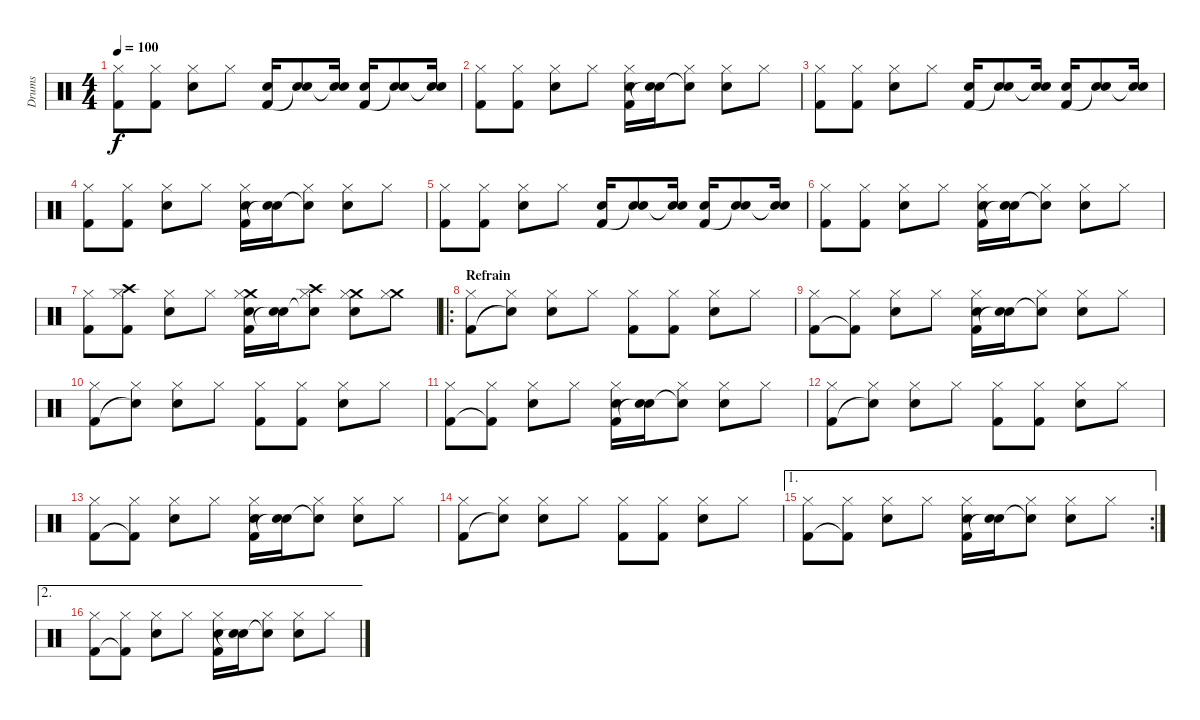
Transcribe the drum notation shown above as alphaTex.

\track ("Drums" "Drums") {instrument percussion}
\staff {score}
\articulation defaults
\ts (4 4)
\tempo 100
\clef neutral
\ks c
("Kick (hit) 2" "Hi-Hat (closed)").8{dy f} ("Kick (hit) 2" "Hi-Hat (closed)").8 ("Snare (hit) 2" "Hi-Hat (closed)").8 "Hi-Hat (closed)".8 ("Kick (hit) 2" "Snare (hit) 2").16 ("Snare (hit)"{t} "Snare (hit) 2").8 ("Snare (hit)"{t} "Snare (hit) 2").16 ("Kick (hit) 2" "Snare (hit) 2").16 ("Snare (hit)"{t} "Snare (hit) 2").8 ("Snare (hit)"{t} "Snare (hit) 2").16 |
("Kick (hit) 2" "Hi-Hat (closed)").8 ("Kick (hit) 2" "Hi-Hat (closed)").8 ("Snare (hit) 2" "Hi-Hat (closed)").8 "Hi-Hat (closed)".8 ("Kick (hit) 2" "Snare (hit) 2" "Hi-Hat (closed)").16 ("Snare (hit)"{t} "Snare (hit) 2").16 ("Snare (hit)"{t} "Hi-Hat (closed)").8 ("Snare (hit) 2" "Hi-Hat (closed)").8 "Hi-Hat (closed)".8 |
("Kick (hit) 2" "Hi-Hat (closed)").8 ("Kick (hit) 2" "Hi-Hat (closed)").8 ("Snare (hit) 2" "Hi-Hat (closed)").8 "Hi-Hat (closed)".8 ("Kick (hit) 2" "Snare (hit) 2").16 ("Snare (hit)"{t} "Snare (hit) 2").8 ("Snare (hit)"{t} "Snare (hit) 2").16 ("Kick (hit) 2" "Snare (hit) 2").16 ("Snare (hit)"{t} "Snare (hit) 2").8 ("Snare (hit)"{t} "Snare (hit) 2").16 |
("Kick (hit) 2" "Hi-Hat (closed)").8 ("Kick (hit) 2" "Hi-Hat (closed)").8 ("Snare (hit) 2" "Hi-Hat (closed)").8 "Hi-Hat (closed)".8 ("Kick (hit) 2" "Snare (hit) 2" "Hi-Hat (closed)").16 ("Snare (hit)"{t} "Snare (hit) 2").16 ("Snare (hit)"{t} "Hi-Hat (closed)").8 ("Snare (hit) 2" "Hi-Hat (closed)").8 "Hi-Hat (closed)".8 |
("Kick (hit) 2" "Hi-Hat (closed)").8 ("Kick (hit) 2" "Hi-Hat (closed)").8 ("Snare (hit) 2" "Hi-Hat (closed)").8 "Hi-Hat (closed)".8 ("Kick (hit) 2" "Snare (hit) 2").16 ("Snare (hit)"{t} "Snare (hit) 2").8 ("Snare (hit)"{t} "Snare (hit) 2").16 ("Kick (hit) 2" "Snare (hit) 2").16 ("Snare (hit)"{t} "Snare (hit) 2").8 ("Snare (hit)"{t} "Snare (hit) 2").16 |
("Kick (hit) 2" "Hi-Hat (closed)").8 ("Kick (hit) 2" "Hi-Hat (closed)").8 ("Snare (hit) 2" "Hi-Hat (closed)").8 "Hi-Hat (closed)".8 ("Kick (hit) 2" "Snare (hit) 2" "Hi-Hat (closed)").16 ("Snare (hit)"{t} "Snare (hit) 2").16 ("Snare (hit)"{t} "Hi-Hat (closed)").8 ("Snare (hit) 2" "Hi-Hat (closed)").8 "Hi-Hat (closed)".8 |
("Kick (hit) 2" "Hi-Hat (closed)").8 ("Kick (hit) 2" "Crash high (hit)" "Hi-Hat (closed)").8 ("Snare (hit) 2" "Hi-Hat (closed)").8 "Hi-Hat (closed)".8 ("Kick (hit) 2" "Crash medium (hit)" "Snare (hit) 2" "Hi-Hat (closed)").16 ("Snare (hit)"{t} "Snare (hit) 2").16 ("Snare (hit)"{t} "Crash high (hit)" "Hi-Hat (closed)").8 ("Crash medium (hit)" "Snare (hit) 2" "Hi-Hat (closed)").8 ("Crash medium (hit)" "Hi-Hat (closed)").8 |
\ro
\section ("" "Refrain")
("Kick (hit) 2" "Hi-Hat (closed)").8 ("Snare (hit)"{t} "Hi-Hat (closed)").8 ("Snare (hit) 2" "Hi-Hat (closed)").8 "Hi-Hat (closed)".8 ("Kick (hit) 2" "Hi-Hat (closed)").8 ("Kick (hit) 2" "Hi-Hat (closed)").8 ("Snare (hit) 2" "Hi-Hat (closed)").8 "Hi-Hat (closed)".8 |
("Kick (hit) 2" "Hi-Hat (closed)").8 ("Kick (hit) 2"{t} "Hi-Hat (closed)").8 ("Snare (hit) 2" "Hi-Hat (closed)").8 "Hi-Hat (closed)".8 ("Kick (hit) 2" "Snare (hit) 2" "Hi-Hat (closed)").16 ("Snare (hit)"{t} "Snare (hit) 2").16 ("Snare (hit)"{t} "Hi-Hat (closed)").8 ("Snare (hit) 2" "Hi-Hat (closed)").8 "Hi-Hat (closed)".8 |
("Kick (hit) 2" "Hi-Hat (closed)").8 ("Snare (hit)"{t} "Hi-Hat (closed)").8 ("Snare (hit) 2" "Hi-Hat (closed)").8 "Hi-Hat (closed)".8 ("Kick (hit) 2" "Hi-Hat (closed)").8 ("Kick (hit) 2" "Hi-Hat (closed)").8 ("Snare (hit) 2" "Hi-Hat (closed)").8 "Hi-Hat (closed)".8 |
("Kick (hit) 2" "Hi-Hat (closed)").8 ("Kick (hit) 2"{t} "Hi-Hat (closed)").8 ("Snare (hit) 2" "Hi-Hat (closed)").8 "Hi-Hat (closed)".8 ("Kick (hit) 2" "Snare (hit) 2" "Hi-Hat (closed)").16 ("Snare (hit)"{t} "Snare (hit) 2").16 ("Snare (hit)"{t} "Hi-Hat (closed)").8 ("Snare (hit) 2" "Hi-Hat (closed)").8 "Hi-Hat (closed)".8 |
("Kick (hit) 2" "Hi-Hat (closed)").8 ("Snare (hit)"{t} "Hi-Hat (closed)").8 ("Snare (hit) 2" "Hi-Hat (closed)").8 "Hi-Hat (closed)".8 ("Kick (hit) 2" "Hi-Hat (closed)").8 ("Kick (hit) 2" "Hi-Hat (closed)").8 ("Snare (hit) 2" "Hi-Hat (closed)").8 "Hi-Hat (closed)".8 |
("Kick (hit) 2" "Hi-Hat (closed)").8 ("Kick (hit) 2"{t} "Hi-Hat (closed)").8 ("Snare (hit) 2" "Hi-Hat (closed)").8 "Hi-Hat (closed)".8 ("Kick (hit) 2" "Snare (hit) 2" "Hi-Hat (closed)").16 ("Snare (hit)"{t} "Snare (hit) 2").16 ("Snare (hit)"{t} "Hi-Hat (closed)").8 ("Snare (hit) 2" "Hi-Hat (closed)").8 "Hi-Hat (closed)".8 |
("Kick (hit) 2" "Hi-Hat (closed)").8 ("Snare (hit)"{t} "Hi-Hat (closed)").8 ("Snare (hit) 2" "Hi-Hat (closed)").8 "Hi-Hat (closed)".8 ("Kick (hit) 2" "Hi-Hat (closed)").8 ("Kick (hit) 2" "Hi-Hat (closed)").8 ("Snare (hit) 2" "Hi-Hat (closed)").8 "Hi-Hat (closed)".8 |
\ae 1
\rc 2
("Kick (hit) 2" "Hi-Hat (closed)").8 ("Kick (hit) 2"{t} "Hi-Hat (closed)").8 ("Snare (hit) 2" "Hi-Hat (closed)").8 "Hi-Hat (closed)".8 ("Kick (hit) 2" "Snare (hit) 2" "Hi-Hat (closed)").16 ("Snare (hit)"{t} "Snare (hit) 2").16 ("Snare (hit)"{t} "Hi-Hat (closed)").8 ("Snare (hit) 2" "Hi-Hat (closed)").8 "Hi-Hat (closed)".8 |
\ae 2
("Kick (hit) 2" "Hi-Hat (closed)").8 ("Kick (hit) 2"{t} "Hi-Hat (closed)").8 ("Snare (hit) 2" "Hi-Hat (closed)").8 "Hi-Hat (closed)".8 ("Kick (hit) 2" "Snare (hit) 2" "Hi-Hat (closed)").16 ("Snare (hit)"{t} "Snare (hit) 2").16 ("Snare (hit)"{t} "Hi-Hat (closed)").8 ("Snare (hit) 2" "Hi-Hat (closed)").8 "Hi-Hat (closed)".8
